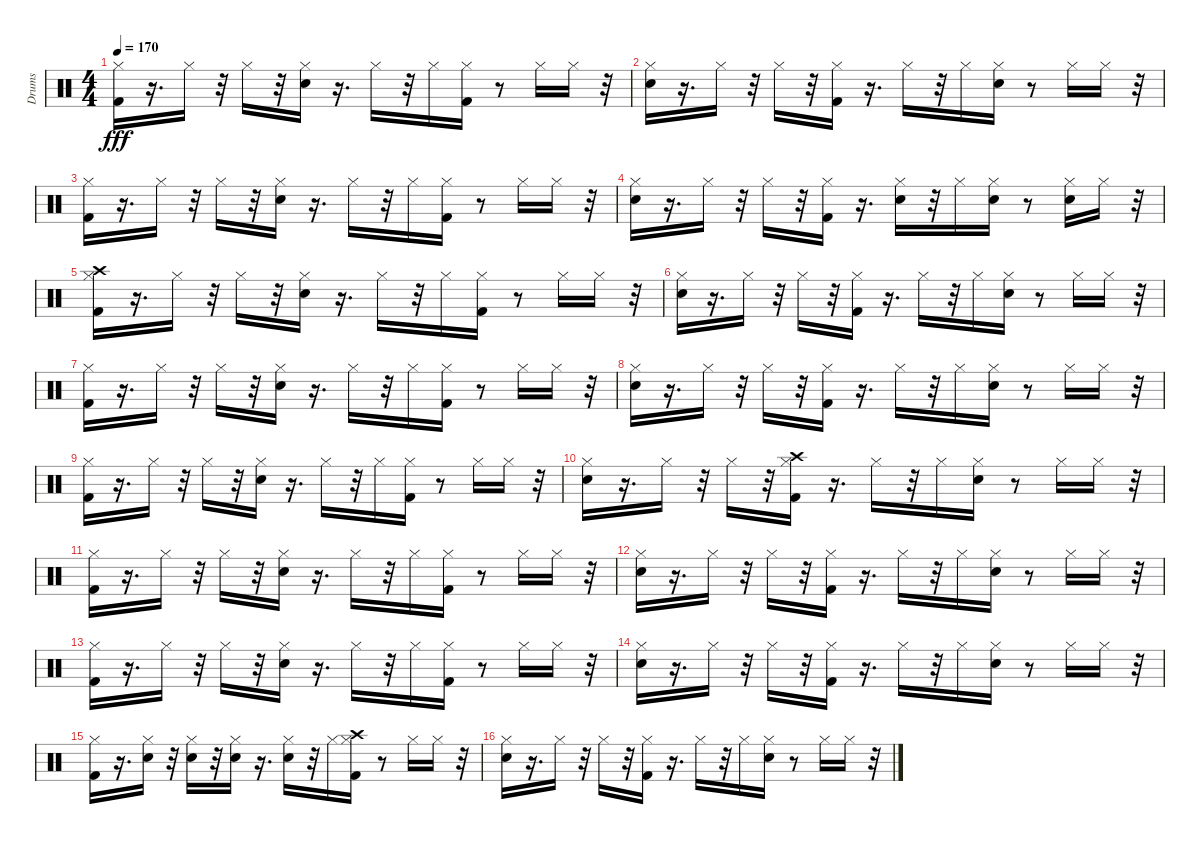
\track ("Drums" "Drums") {instrument percussion}
\staff {score}
\articulation defaults
\ts (4 4)
\tempo 170
\clef neutral
\ks c
("Kick (hit) 2" "Hi-Hat (closed)").16{dy fff} r.16{d} "Hi-Hat (closed)".16 r.32 "Hi-Hat (closed)".16 r.32 ("Snare (hit) 2" "Hi-Hat (closed)").16 r.16{d} "Hi-Hat (closed)".16 r.32 "Hi-Hat (closed)".16 ("Kick (hit) 2" "Hi-Hat (closed)").16 r.8 "Hi-Hat (closed)".16 "Hi-Hat (closed)".16 r.32 |
("Snare (hit) 2" "Hi-Hat (closed)").16 r.16{d} "Hi-Hat (closed)".16 r.32 "Hi-Hat (closed)".16 r.32 ("Kick (hit) 2" "Hi-Hat (closed)").16 r.16{d} "Hi-Hat (closed)".16 r.32 "Hi-Hat (closed)".16 ("Snare (hit) 2" "Hi-Hat (closed)").16 r.8 "Hi-Hat (closed)".16 "Hi-Hat (closed)".16 r.32 |
("Kick (hit) 2" "Hi-Hat (closed)").16 r.16{d} "Hi-Hat (closed)".16 r.32 "Hi-Hat (closed)".16 r.32 ("Snare (hit) 2" "Hi-Hat (closed)").16 r.16{d} "Hi-Hat (closed)".16 r.32 "Hi-Hat (closed)".16 ("Kick (hit) 2" "Hi-Hat (closed)").16 r.8 "Hi-Hat (closed)".16 "Hi-Hat (closed)".16 r.32 |
("Snare (hit) 2" "Hi-Hat (closed)").16 r.16{d} "Hi-Hat (closed)".16 r.32 "Hi-Hat (closed)".16 r.32 ("Kick (hit) 2" "Hi-Hat (closed)").16 r.16{d} ("Hi-Hat (closed)" "Snare (hit) 2").16 r.32 "Hi-Hat (closed)".16 ("Snare (hit) 2" "Hi-Hat (closed)").16 r.8 ("Hi-Hat (closed)" "Snare (hit) 2").16 "Hi-Hat (closed)".16 r.32 |
("Kick (hit) 2" "Hi-Hat (closed)" "Crash high (hit)").16 r.16{d} "Hi-Hat (closed)".16 r.32 "Hi-Hat (closed)".16 r.32 ("Snare (hit) 2" "Hi-Hat (closed)").16 r.16{d} "Hi-Hat (closed)".16 r.32 "Hi-Hat (closed)".16 ("Kick (hit) 2" "Hi-Hat (closed)").16 r.8 "Hi-Hat (closed)".16 "Hi-Hat (closed)".16 r.32 |
("Snare (hit) 2" "Hi-Hat (closed)").16 r.16{d} "Hi-Hat (closed)".16 r.32 "Hi-Hat (closed)".16 r.32 ("Kick (hit) 2" "Hi-Hat (closed)").16 r.16{d} "Hi-Hat (closed)".16 r.32 "Hi-Hat (closed)".16 ("Snare (hit) 2" "Hi-Hat (closed)").16 r.8 "Hi-Hat (closed)".16 "Hi-Hat (closed)".16 r.32 |
("Kick (hit) 2" "Hi-Hat (closed)").16 r.16{d} "Hi-Hat (closed)".16 r.32 "Hi-Hat (closed)".16 r.32 ("Snare (hit) 2" "Hi-Hat (closed)").16 r.16{d} "Hi-Hat (closed)".16 r.32 "Hi-Hat (closed)".16 ("Kick (hit) 2" "Hi-Hat (closed)").16 r.8 "Hi-Hat (closed)".16 "Hi-Hat (closed)".16 r.32 |
("Snare (hit) 2" "Hi-Hat (closed)").16 r.16{d} "Hi-Hat (closed)".16 r.32 "Hi-Hat (closed)".16 r.32 ("Kick (hit) 2" "Hi-Hat (closed)").16 r.16{d} "Hi-Hat (closed)".16 r.32 "Hi-Hat (closed)".16 ("Snare (hit) 2" "Hi-Hat (closed)").16 r.8 "Hi-Hat (closed)".16 "Hi-Hat (closed)".16 r.32 |
("Kick (hit) 2" "Hi-Hat (closed)").16 r.16{d} "Hi-Hat (closed)".16 r.32 "Hi-Hat (closed)".16 r.32 ("Snare (hit) 2" "Hi-Hat (closed)").16 r.16{d} "Hi-Hat (closed)".16 r.32 "Hi-Hat (closed)".16 ("Kick (hit) 2" "Hi-Hat (closed)").16 r.8 "Hi-Hat (closed)".16 "Hi-Hat (closed)".16 r.32 |
("Snare (hit) 2" "Hi-Hat (closed)").16 r.16{d} "Hi-Hat (closed)".16 r.32 "Hi-Hat (closed)".16 r.32 ("Kick (hit) 2" "Hi-Hat (closed)" "Crash high (hit)").16 r.16{d} "Hi-Hat (closed)".16 r.32 "Hi-Hat (closed)".16 ("Snare (hit) 2" "Hi-Hat (closed)").16 r.8 "Hi-Hat (closed)".16 "Hi-Hat (closed)".16 r.32 |
("Kick (hit) 2" "Hi-Hat (closed)").16 r.16{d} "Hi-Hat (closed)".16 r.32 "Hi-Hat (closed)".16 r.32 ("Snare (hit) 2" "Hi-Hat (closed)").16 r.16{d} "Hi-Hat (closed)".16 r.32 "Hi-Hat (closed)".16 ("Kick (hit) 2" "Hi-Hat (closed)").16 r.8 "Hi-Hat (closed)".16 "Hi-Hat (closed)".16 r.32 |
("Snare (hit) 2" "Hi-Hat (closed)").16 r.16{d} "Hi-Hat (closed)".16 r.32 "Hi-Hat (closed)".16 r.32 ("Kick (hit) 2" "Hi-Hat (closed)").16 r.16{d} "Hi-Hat (closed)".16 r.32 "Hi-Hat (closed)".16 ("Snare (hit) 2" "Hi-Hat (closed)").16 r.8 "Hi-Hat (closed)".16 "Hi-Hat (closed)".16 r.32 |
("Kick (hit) 2" "Hi-Hat (closed)").16 r.16{d} "Hi-Hat (closed)".16 r.32 "Hi-Hat (closed)".16 r.32 ("Snare (hit) 2" "Hi-Hat (closed)").16 r.16{d} "Hi-Hat (closed)".16 r.32 "Hi-Hat (closed)".16 ("Kick (hit) 2" "Hi-Hat (closed)").16 r.8 "Hi-Hat (closed)".16 "Hi-Hat (closed)".16 r.32 |
("Snare (hit) 2" "Hi-Hat (closed)").16 r.16{d} "Hi-Hat (closed)".16 r.32 "Hi-Hat (closed)".16 r.32 ("Kick (hit) 2" "Hi-Hat (closed)").16 r.16{d} "Hi-Hat (closed)".16 r.32 "Hi-Hat (closed)".16 ("Snare (hit) 2" "Hi-Hat (closed)").16 r.8 "Hi-Hat (closed)".16 "Hi-Hat (closed)".16 r.32 |
("Kick (hit) 2" "Hi-Hat (closed)").16 r.16{d} ("Hi-Hat (closed)" "Snare (hit) 2").16 r.32 ("Hi-Hat (closed)" "Snare (hit) 2").16 r.32 ("Snare (hit) 2" "Hi-Hat (closed)").16 r.16{d} ("Hi-Hat (closed)" "Snare (hit) 2").16 r.32 "Hi-Hat (closed)".16 ("Kick (hit) 2" "Hi-Hat (closed)" "Crash high (hit)").16 r.8 "Hi-Hat (closed)".16 "Hi-Hat (closed)".16 r.32 |
("Snare (hit) 2" "Hi-Hat (closed)").16 r.16{d} "Hi-Hat (closed)".16 r.32 "Hi-Hat (closed)".16 r.32 ("Kick (hit) 2" "Hi-Hat (closed)").16 r.16{d} "Hi-Hat (closed)".16 r.32 "Hi-Hat (closed)".16 ("Snare (hit) 2" "Hi-Hat (closed)").16 r.8 "Hi-Hat (closed)".16 "Hi-Hat (closed)".16 r.32
